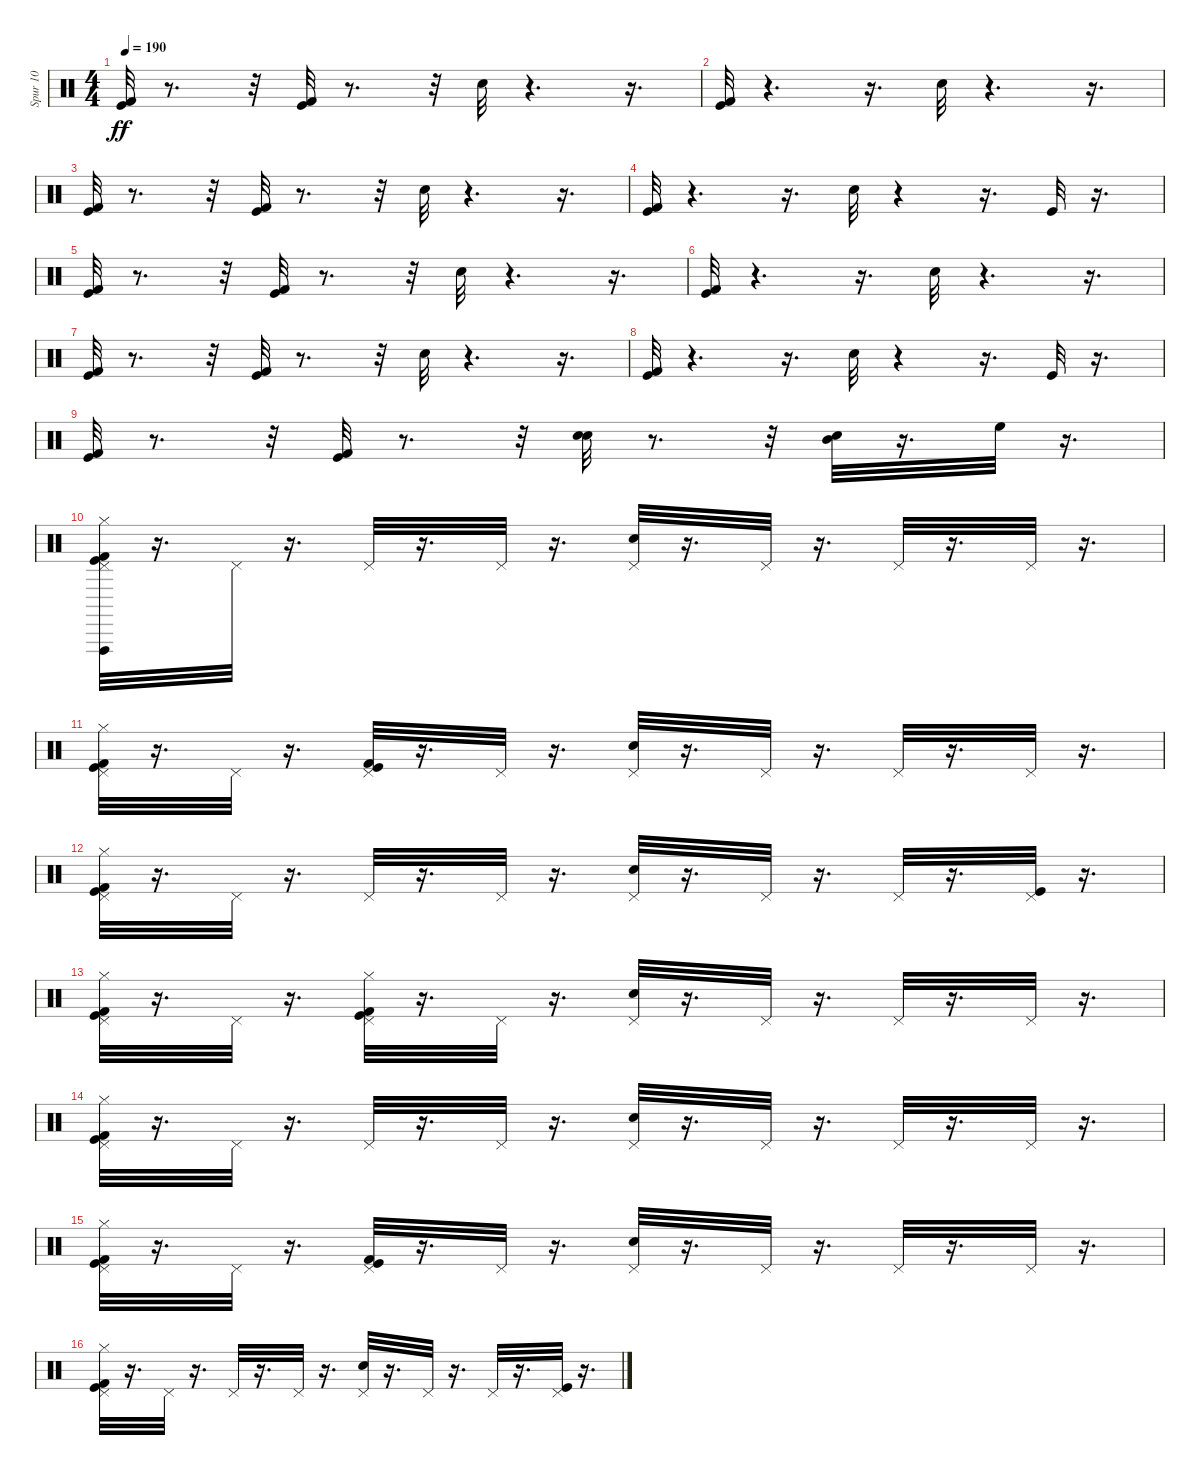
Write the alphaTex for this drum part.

\track ("Spur 10" "Spur 10") {instrument percussion}
\staff {score}
\articulation defaults
\ts (4 4)
\tempo 190
\clef neutral
\ks c
("Kick (hit) 2" "Kick (hit)").32{dy ff} r.8{d} r.32 ("Kick (hit) 2" "Kick (hit)").32 r.8{d} r.32 "Hand Clap (hit)".32 r.4{d} r.16{d} |
("Kick (hit) 2" "Kick (hit)").32 r.4{d} r.16{d} "Hand Clap (hit)".32 r.4{d} r.16{d} |
("Kick (hit) 2" "Kick (hit)").32 r.8{d} r.32 ("Kick (hit) 2" "Kick (hit)").32 r.8{d} r.32 "Hand Clap (hit)".32 r.4{d} r.16{d} |
("Kick (hit) 2" "Kick (hit)").32 r.4{d} r.16{d} "Hand Clap (hit)".32 r.4 r.16{d} "Kick (hit)".32 r.16{d} |
("Kick (hit) 2" "Kick (hit)").32 r.8{d} r.32 ("Kick (hit) 2" "Kick (hit)").32 r.8{d} r.32 "Hand Clap (hit)".32 r.4{d} r.16{d} |
("Kick (hit) 2" "Kick (hit)").32 r.4{d} r.16{d} "Hand Clap (hit)".32 r.4{d} r.16{d} |
("Kick (hit) 2" "Kick (hit)").32 r.8{d} r.32 ("Kick (hit) 2" "Kick (hit)").32 r.8{d} r.32 "Hand Clap (hit)".32 r.4{d} r.16{d} |
("Kick (hit) 2" "Kick (hit)").32 r.4{d} r.16{d} "Hand Clap (hit)".32 r.4 r.16{d} "Kick (hit)".32 r.16{d} |
("Kick (hit) 2" "Kick (hit)").32 r.8{d} r.32 ("Kick (hit) 2" "Kick (hit)").32 r.8{d} r.32 ("Snare (hit) 2" "Hand Clap (hit)").32 r.8{d} r.32 ("Mid Tom (hit)" "Electric Snare (hit)").32 r.16{d} "High Floor Tom (hit)".32 r.16{d} |
("Vibraslap (hit)" "Pedal Hi-Hat (hit)" "Kick (hit) 2" "Kick (hit)" "Hi-Hat (closed)").32 r.16{d} "Pedal Hi-Hat (hit)".32 r.16{d} "Pedal Hi-Hat (hit)".32 r.16{d} "Pedal Hi-Hat (hit)".32 r.16{d} ("Pedal Hi-Hat (hit)" "Hand Clap (hit)").32 r.16{d} "Pedal Hi-Hat (hit)".32 r.16{d} "Pedal Hi-Hat (hit)".32 r.16{d} "Pedal Hi-Hat (hit)".32 r.16{d} |
("Pedal Hi-Hat (hit)" "Kick (hit) 2" "Kick (hit)" "Hi-Hat (closed)").32 r.16{d} "Pedal Hi-Hat (hit)".32 r.16{d} ("Kick (hit)" "Pedal Hi-Hat (hit)" "Kick (hit) 2").32 r.16{d} "Pedal Hi-Hat (hit)".32 r.16{d} ("Hand Clap (hit)" "Pedal Hi-Hat (hit)").32 r.16{d} "Pedal Hi-Hat (hit)".32 r.16{d} "Pedal Hi-Hat (hit)".32 r.16{d} "Pedal Hi-Hat (hit)".32 r.16{d} |
("Kick (hit) 2" "Pedal Hi-Hat (hit)" "Kick (hit)" "Hi-Hat (closed)").32 r.16{d} "Pedal Hi-Hat (hit)".32 r.16{d} "Pedal Hi-Hat (hit)".32 r.16{d} "Pedal Hi-Hat (hit)".32 r.16{d} ("Pedal Hi-Hat (hit)" "Hand Clap (hit)").32 r.16{d} "Pedal Hi-Hat (hit)".32 r.16{d} "Pedal Hi-Hat (hit)".32 r.16{d} ("Pedal Hi-Hat (hit)" "Kick (hit)").32 r.16{d} |
("Hi-Hat (closed)" "Kick (hit)" "Kick (hit) 2" "Pedal Hi-Hat (hit)").32 r.16{d} "Pedal Hi-Hat (hit)".32 r.16{d} ("Hi-Hat (closed)" "Pedal Hi-Hat (hit)" "Kick (hit) 2" "Kick (hit)").32 r.16{d} "Pedal Hi-Hat (hit)".32 r.16{d} ("Hand Clap (hit)" "Pedal Hi-Hat (hit)").32 r.16{d} "Pedal Hi-Hat (hit)".32 r.16{d} "Pedal Hi-Hat (hit)".32 r.16{d} "Pedal Hi-Hat (hit)".32 r.16{d} |
("Kick (hit) 2" "Kick (hit)" "Pedal Hi-Hat (hit)" "Hi-Hat (closed)").32 r.16{d} "Pedal Hi-Hat (hit)".32 r.16{d} "Pedal Hi-Hat (hit)".32 r.16{d} "Pedal Hi-Hat (hit)".32 r.16{d} ("Hand Clap (hit)" "Pedal Hi-Hat (hit)").32 r.16{d} "Pedal Hi-Hat (hit)".32 r.16{d} "Pedal Hi-Hat (hit)".32 r.16{d} "Pedal Hi-Hat (hit)".32 r.16{d} |
("Pedal Hi-Hat (hit)" "Hi-Hat (closed)" "Kick (hit)" "Kick (hit) 2").32 r.16{d} "Pedal Hi-Hat (hit)".32 r.16{d} ("Pedal Hi-Hat (hit)" "Kick (hit) 2" "Kick (hit)").32 r.16{d} "Pedal Hi-Hat (hit)".32 r.16{d} ("Pedal Hi-Hat (hit)" "Hand Clap (hit)").32 r.16{d} "Pedal Hi-Hat (hit)".32 r.16{d} "Pedal Hi-Hat (hit)".32 r.16{d} "Pedal Hi-Hat (hit)".32 r.16{d} |
("Kick (hit)" "Kick (hit) 2" "Pedal Hi-Hat (hit)" "Hi-Hat (closed)").32 r.16{d} "Pedal Hi-Hat (hit)".32 r.16{d} "Pedal Hi-Hat (hit)".32 r.16{d} "Pedal Hi-Hat (hit)".32 r.16{d} ("Pedal Hi-Hat (hit)" "Hand Clap (hit)").32 r.16{d} "Pedal Hi-Hat (hit)".32 r.16{d} "Pedal Hi-Hat (hit)".32 r.16{d} ("Pedal Hi-Hat (hit)" "Kick (hit)").32 r.16{d}
